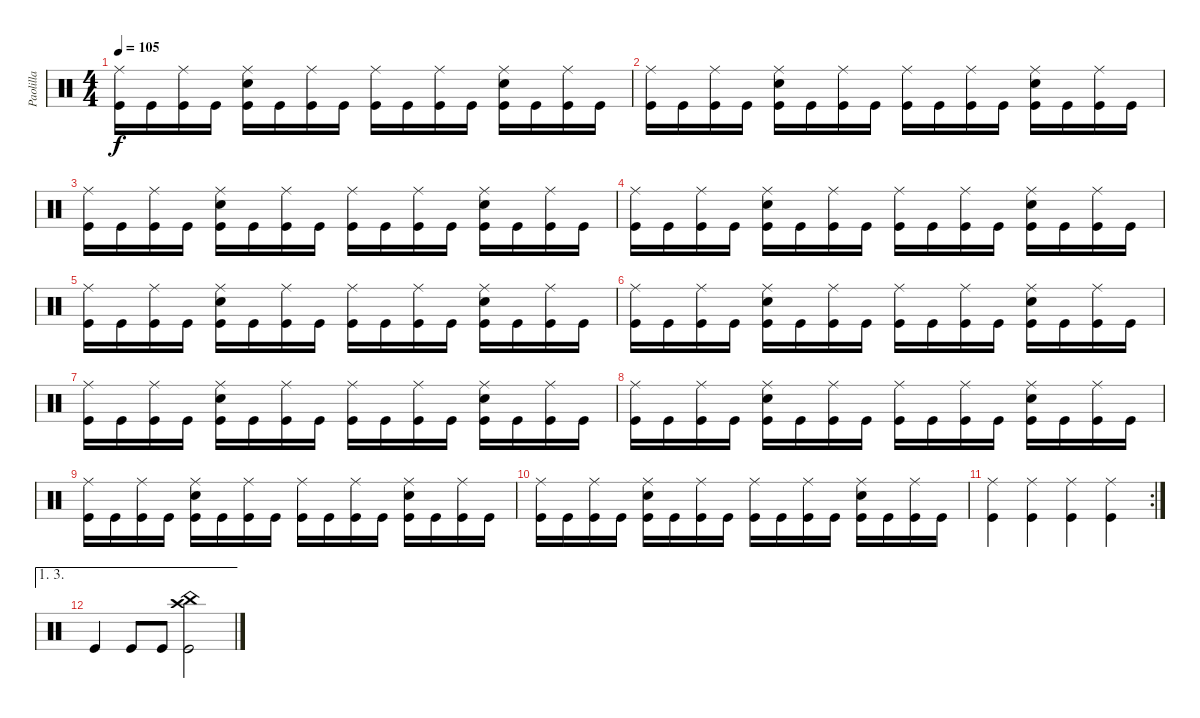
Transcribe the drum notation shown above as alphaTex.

\track ("Paolilla" "Paolilla") {instrument percussion}
\staff {score}
\articulation defaults
\ts (4 4)
\tempo 105
\clef neutral
\ks c
("Ride (middle)" "Kick (hit)").16{dy f} "Kick (hit)".16 ("Ride (middle)" "Kick (hit)").16 "Kick (hit)".16 ("Ride (middle)" "Snare (hit) 2" "Kick (hit)").16 "Kick (hit)".16 ("Ride (middle)" "Kick (hit)").16 "Kick (hit)".16 ("Ride (middle)" "Kick (hit)").16 "Kick (hit)".16 ("Ride (middle)" "Kick (hit)").16 "Kick (hit)".16 ("Ride (middle)" "Snare (hit) 2" "Kick (hit)").16 "Kick (hit)".16 ("Ride (middle)" "Kick (hit)").16 "Kick (hit)".16 |
("Ride (middle)" "Kick (hit)").16 "Kick (hit)".16 ("Ride (middle)" "Kick (hit)").16 "Kick (hit)".16 ("Ride (middle)" "Snare (hit) 2" "Kick (hit)").16 "Kick (hit)".16 ("Ride (middle)" "Kick (hit)").16 "Kick (hit)".16 ("Ride (middle)" "Kick (hit)").16 "Kick (hit)".16 ("Ride (middle)" "Kick (hit)").16 "Kick (hit)".16 ("Ride (middle)" "Snare (hit) 2" "Kick (hit)").16 "Kick (hit)".16 ("Ride (middle)" "Kick (hit)").16 "Kick (hit)".16 |
("Ride (middle)" "Kick (hit)").16 "Kick (hit)".16 ("Ride (middle)" "Kick (hit)").16 "Kick (hit)".16 ("Ride (middle)" "Snare (hit) 2" "Kick (hit)").16 "Kick (hit)".16 ("Ride (middle)" "Kick (hit)").16 "Kick (hit)".16 ("Ride (middle)" "Kick (hit)").16 "Kick (hit)".16 ("Ride (middle)" "Kick (hit)").16 "Kick (hit)".16 ("Ride (middle)" "Snare (hit) 2" "Kick (hit)").16 "Kick (hit)".16 ("Ride (middle)" "Kick (hit)").16 "Kick (hit)".16 |
("Ride (middle)" "Kick (hit)").16 "Kick (hit)".16 ("Ride (middle)" "Kick (hit)").16 "Kick (hit)".16 ("Ride (middle)" "Snare (hit) 2" "Kick (hit)").16 "Kick (hit)".16 ("Ride (middle)" "Kick (hit)").16 "Kick (hit)".16 ("Ride (middle)" "Kick (hit)").16 "Kick (hit)".16 ("Ride (middle)" "Kick (hit)").16 "Kick (hit)".16 ("Ride (middle)" "Snare (hit) 2" "Kick (hit)").16 "Kick (hit)".16 ("Ride (middle)" "Kick (hit)").16 "Kick (hit)".16 |
("Ride (middle)" "Kick (hit)").16 "Kick (hit)".16 ("Ride (middle)" "Kick (hit)").16 "Kick (hit)".16 ("Ride (middle)" "Snare (hit) 2" "Kick (hit)").16 "Kick (hit)".16 ("Ride (middle)" "Kick (hit)").16 "Kick (hit)".16 ("Ride (middle)" "Kick (hit)").16 "Kick (hit)".16 ("Ride (middle)" "Kick (hit)").16 "Kick (hit)".16 ("Ride (middle)" "Snare (hit) 2" "Kick (hit)").16 "Kick (hit)".16 ("Ride (middle)" "Kick (hit)").16 "Kick (hit)".16 |
("Ride (middle)" "Kick (hit)").16 "Kick (hit)".16 ("Ride (middle)" "Kick (hit)").16 "Kick (hit)".16 ("Ride (middle)" "Snare (hit) 2" "Kick (hit)").16 "Kick (hit)".16 ("Ride (middle)" "Kick (hit)").16 "Kick (hit)".16 ("Ride (middle)" "Kick (hit)").16 "Kick (hit)".16 ("Ride (middle)" "Kick (hit)").16 "Kick (hit)".16 ("Ride (middle)" "Snare (hit) 2" "Kick (hit)").16 "Kick (hit)".16 ("Ride (middle)" "Kick (hit)").16 "Kick (hit)".16 |
("Ride (middle)" "Kick (hit)").16 "Kick (hit)".16 ("Ride (middle)" "Kick (hit)").16 "Kick (hit)".16 ("Ride (middle)" "Snare (hit) 2" "Kick (hit)").16 "Kick (hit)".16 ("Ride (middle)" "Kick (hit)").16 "Kick (hit)".16 ("Ride (middle)" "Kick (hit)").16 "Kick (hit)".16 ("Ride (middle)" "Kick (hit)").16 "Kick (hit)".16 ("Ride (middle)" "Snare (hit) 2" "Kick (hit)").16 "Kick (hit)".16 ("Ride (middle)" "Kick (hit)").16 "Kick (hit)".16 |
("Ride (middle)" "Kick (hit)").16 "Kick (hit)".16 ("Ride (middle)" "Kick (hit)").16 "Kick (hit)".16 ("Ride (middle)" "Snare (hit) 2" "Kick (hit)").16 "Kick (hit)".16 ("Ride (middle)" "Kick (hit)").16 "Kick (hit)".16 ("Ride (middle)" "Kick (hit)").16 "Kick (hit)".16 ("Ride (middle)" "Kick (hit)").16 "Kick (hit)".16 ("Ride (middle)" "Snare (hit) 2" "Kick (hit)").16 "Kick (hit)".16 ("Ride (middle)" "Kick (hit)").16 "Kick (hit)".16 |
("Ride (middle)" "Kick (hit)").16 "Kick (hit)".16 ("Ride (middle)" "Kick (hit)").16 "Kick (hit)".16 ("Ride (middle)" "Snare (hit) 2" "Kick (hit)").16 "Kick (hit)".16 ("Ride (middle)" "Kick (hit)").16 "Kick (hit)".16 ("Ride (middle)" "Kick (hit)").16 "Kick (hit)".16 ("Ride (middle)" "Kick (hit)").16 "Kick (hit)".16 ("Ride (middle)" "Snare (hit) 2" "Kick (hit)").16 "Kick (hit)".16 ("Ride (middle)" "Kick (hit)").16 "Kick (hit)".16 |
("Ride (middle)" "Kick (hit)").16 "Kick (hit)".16 ("Ride (middle)" "Kick (hit)").16 "Kick (hit)".16 ("Ride (middle)" "Snare (hit) 2" "Kick (hit)").16 "Kick (hit)".16 ("Ride (middle)" "Kick (hit)").16 "Kick (hit)".16 ("Ride (middle)" "Kick (hit)").16 "Kick (hit)".16 ("Ride (middle)" "Kick (hit)").16 "Kick (hit)".16 ("Ride (middle)" "Snare (hit) 2" "Kick (hit)").16 "Kick (hit)".16 ("Ride (middle)" "Kick (hit)").16 "Kick (hit)".16 |
\rc 2
("Ride (middle)" "Kick (hit)").4 ("Ride (middle)" "Kick (hit)").4 ("Ride (middle)" "Kick (hit)").4 ("Ride (middle)" "Kick (hit)").4 |
\ae (1 3)
"Kick (hit)".4 "Kick (hit)".8 "Kick (hit)".8 ("Crash high (hit)" "China (hit)" "Kick (hit)").2
